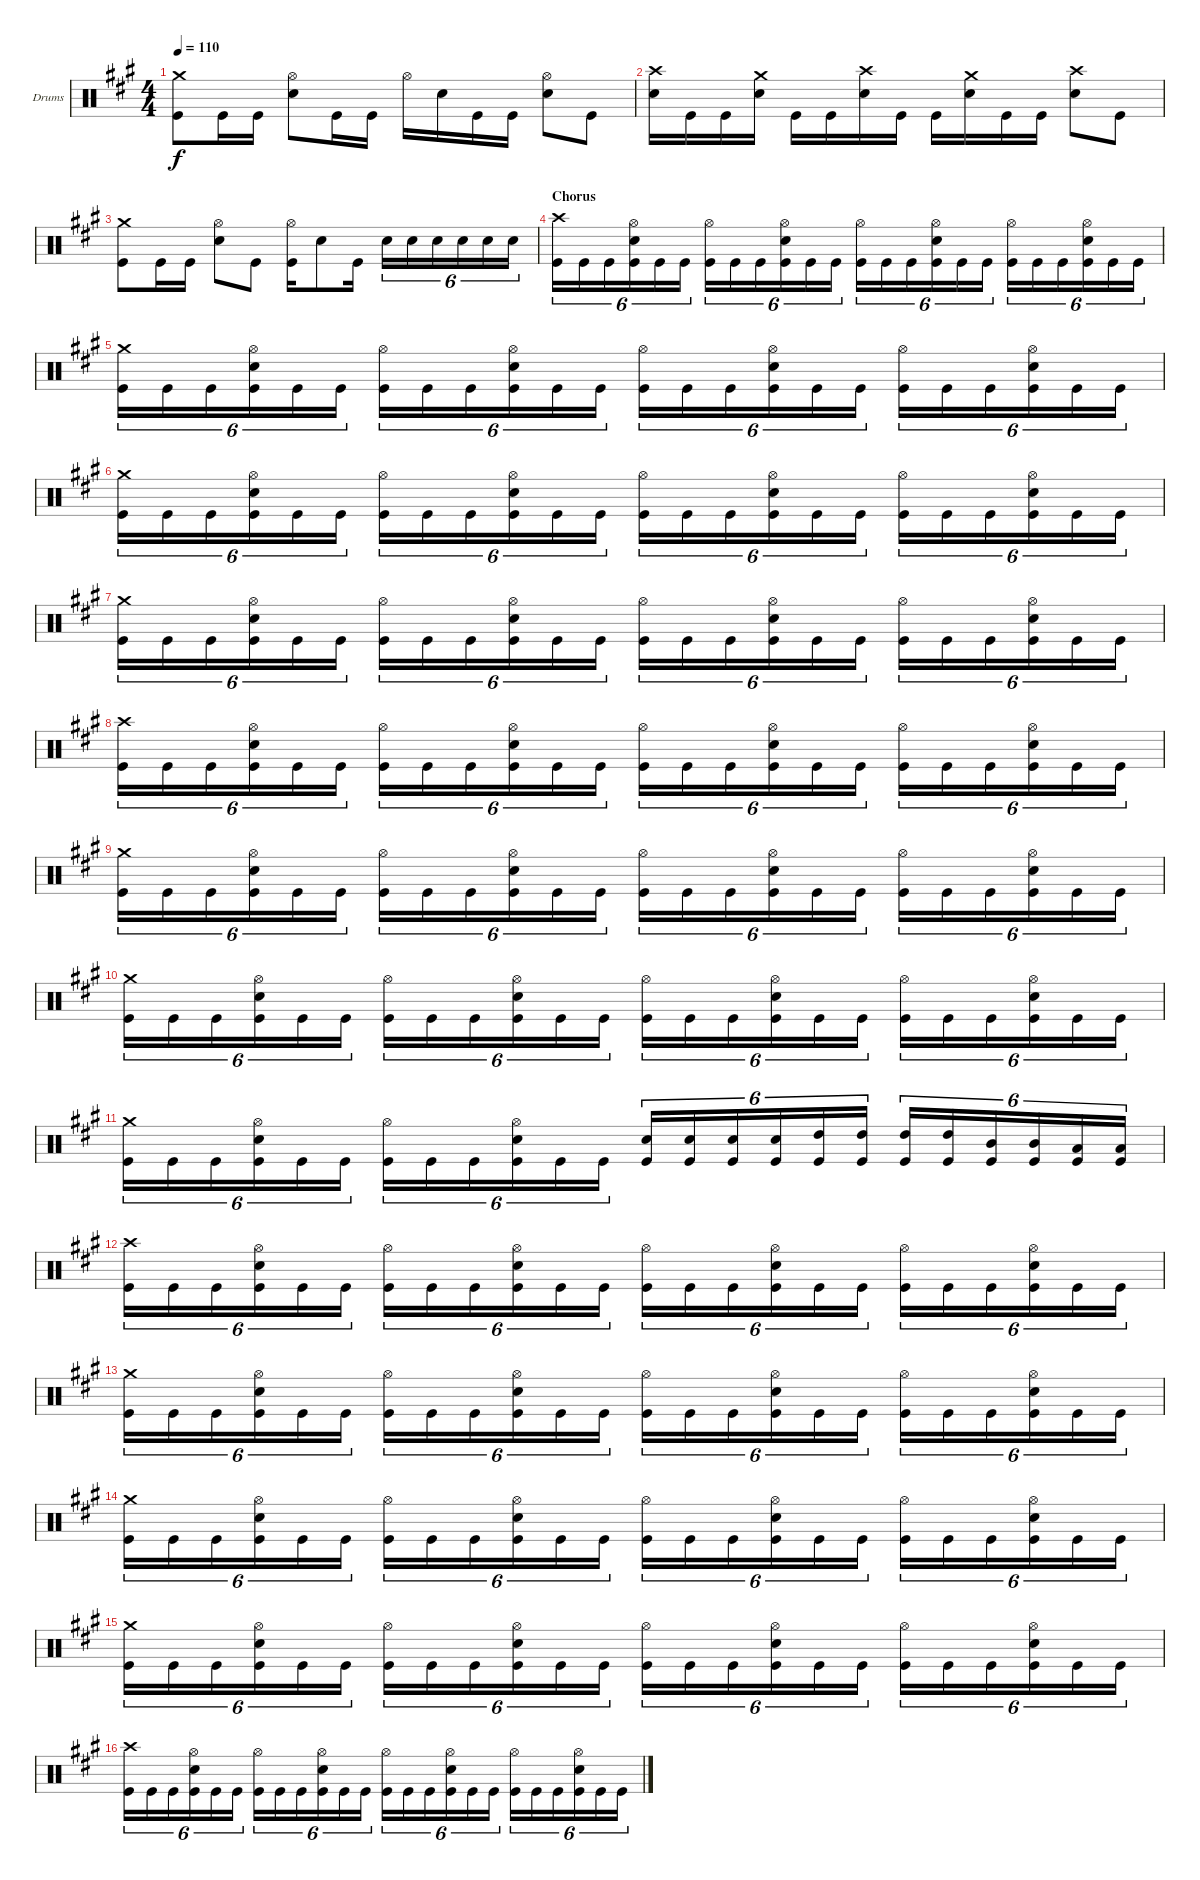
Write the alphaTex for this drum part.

\bracketExtendMode groupsimilarinstruments
\firstSystemTrackNameOrientation horizontal
\otherSystemsTrackNameOrientation horizontal
\track ("Drumkit" "Drums") {instrument percussion}
\staff {score}
\articulation defaults
\ts (4 4)
\tempo 110
\clef neutral
\ks a
("Kick (hit)" "Crash medium (hit)").8{dy f} "Kick (hit)".16 "Kick (hit)".16 ("Snare (hit) 2" "Hi-Hat (open)").8 "Kick (hit)".16 "Kick (hit)".16 "Hi-Hat (open)".16 "Snare (hit) 2".16 "Kick (hit)".16 "Kick (hit)".16 ("Snare (hit) 2" "Hi-Hat (open)").8 "Kick (hit)".8 |
("Crash high (hit)" "Snare (hit) 2").16 "Kick (hit)".16 "Kick (hit)".16 ("Snare (hit) 2" "Crash medium (hit)").16 "Kick (hit)".16 "Kick (hit)".16 ("Snare (hit) 2" "Crash high (hit)").16 "Kick (hit)".16 "Kick (hit)".16 ("Snare (hit) 2" "Crash medium (hit)").16 "Kick (hit)".16 "Kick (hit)".16 ("Snare (hit) 2" "Crash high (hit)").8 "Kick (hit)".8 |
("Kick (hit)" "Crash medium (hit)").8 "Kick (hit)".16 "Kick (hit)".16 ("Snare (hit) 2" "Hi-Hat (open)").8 "Kick (hit)".8 ("Kick (hit)" "Hi-Hat (open)").16 "Snare (hit) 2".8 "Kick (hit)".16 "Snare (hit) 2".16{tu (6 4)} "Snare (hit) 2".16{tu (6 4)} "Snare (hit) 2".16{tu (6 4)} "Snare (hit) 2".16{tu (6 4)} "Snare (hit) 2".16{tu (6 4)} "Snare (hit) 2".16{tu (6 4)} |
\section ("" "Chorus")
("Crash high (hit)" "Kick (hit)").16{tu (6 4)} "Kick (hit)".16{tu (6 4)} "Kick (hit)".16{tu (6 4)} ("Snare (hit) 2" "Kick (hit)" "Hi-Hat (open)").16{tu (6 4)} "Kick (hit)".16{tu (6 4)} "Kick (hit)".16{tu (6 4)} ("Kick (hit)" "Hi-Hat (open)").16{tu (6 4)} "Kick (hit)".16{tu (6 4)} "Kick (hit)".16{tu (6 4)} ("Snare (hit) 2" "Kick (hit)" "Hi-Hat (open)").16{tu (6 4)} "Kick (hit)".16{tu (6 4)} "Kick (hit)".16{tu (6 4)} ("Kick (hit)" "Hi-Hat (open)").16{tu (6 4)} "Kick (hit)".16{tu (6 4)} "Kick (hit)".16{tu (6 4)} ("Snare (hit) 2" "Kick (hit)" "Hi-Hat (open)").16{tu (6 4)} "Kick (hit)".16{tu (6 4)} "Kick (hit)".16{tu (6 4)} ("Kick (hit)" "Hi-Hat (open)").16{tu (6 4)} "Kick (hit)".16{tu (6 4)} "Kick (hit)".16{tu (6 4)} ("Snare (hit) 2" "Kick (hit)" "Hi-Hat (open)").16{tu (6 4)} "Kick (hit)".16{tu (6 4)} "Kick (hit)".16{tu (6 4)} |
("Kick (hit)" "Crash medium (hit)").16{tu (6 4)} "Kick (hit)".16{tu (6 4)} "Kick (hit)".16{tu (6 4)} ("Snare (hit) 2" "Kick (hit)" "Hi-Hat (open)").16{tu (6 4)} "Kick (hit)".16{tu (6 4)} "Kick (hit)".16{tu (6 4)} ("Kick (hit)" "Hi-Hat (open)").16{tu (6 4)} "Kick (hit)".16{tu (6 4)} "Kick (hit)".16{tu (6 4)} ("Snare (hit) 2" "Kick (hit)" "Hi-Hat (open)").16{tu (6 4)} "Kick (hit)".16{tu (6 4)} "Kick (hit)".16{tu (6 4)} ("Kick (hit)" "Hi-Hat (open)").16{tu (6 4)} "Kick (hit)".16{tu (6 4)} "Kick (hit)".16{tu (6 4)} ("Snare (hit) 2" "Kick (hit)" "Hi-Hat (open)").16{tu (6 4)} "Kick (hit)".16{tu (6 4)} "Kick (hit)".16{tu (6 4)} ("Kick (hit)" "Hi-Hat (open)").16{tu (6 4)} "Kick (hit)".16{tu (6 4)} "Kick (hit)".16{tu (6 4)} ("Snare (hit) 2" "Kick (hit)" "Hi-Hat (open)").16{tu (6 4)} "Kick (hit)".16{tu (6 4)} "Kick (hit)".16{tu (6 4)} |
("Kick (hit)" "Crash medium (hit)").16{tu (6 4)} "Kick (hit)".16{tu (6 4)} "Kick (hit)".16{tu (6 4)} ("Snare (hit) 2" "Kick (hit)" "Hi-Hat (open)").16{tu (6 4)} "Kick (hit)".16{tu (6 4)} "Kick (hit)".16{tu (6 4)} ("Kick (hit)" "Hi-Hat (open)").16{tu (6 4)} "Kick (hit)".16{tu (6 4)} "Kick (hit)".16{tu (6 4)} ("Snare (hit) 2" "Kick (hit)" "Hi-Hat (open)").16{tu (6 4)} "Kick (hit)".16{tu (6 4)} "Kick (hit)".16{tu (6 4)} ("Kick (hit)" "Hi-Hat (open)").16{tu (6 4)} "Kick (hit)".16{tu (6 4)} "Kick (hit)".16{tu (6 4)} ("Snare (hit) 2" "Kick (hit)" "Hi-Hat (open)").16{tu (6 4)} "Kick (hit)".16{tu (6 4)} "Kick (hit)".16{tu (6 4)} ("Kick (hit)" "Hi-Hat (open)").16{tu (6 4)} "Kick (hit)".16{tu (6 4)} "Kick (hit)".16{tu (6 4)} ("Snare (hit) 2" "Kick (hit)" "Hi-Hat (open)").16{tu (6 4)} "Kick (hit)".16{tu (6 4)} "Kick (hit)".16{tu (6 4)} |
("Kick (hit)" "Crash medium (hit)").16{tu (6 4)} "Kick (hit)".16{tu (6 4)} "Kick (hit)".16{tu (6 4)} ("Snare (hit) 2" "Kick (hit)" "Hi-Hat (open)").16{tu (6 4)} "Kick (hit)".16{tu (6 4)} "Kick (hit)".16{tu (6 4)} ("Kick (hit)" "Hi-Hat (open)").16{tu (6 4)} "Kick (hit)".16{tu (6 4)} "Kick (hit)".16{tu (6 4)} ("Snare (hit) 2" "Kick (hit)" "Hi-Hat (open)").16{tu (6 4)} "Kick (hit)".16{tu (6 4)} "Kick (hit)".16{tu (6 4)} ("Kick (hit)" "Hi-Hat (open)").16{tu (6 4)} "Kick (hit)".16{tu (6 4)} "Kick (hit)".16{tu (6 4)} ("Snare (hit) 2" "Kick (hit)" "Hi-Hat (open)").16{tu (6 4)} "Kick (hit)".16{tu (6 4)} "Kick (hit)".16{tu (6 4)} ("Kick (hit)" "Hi-Hat (open)").16{tu (6 4)} "Kick (hit)".16{tu (6 4)} "Kick (hit)".16{tu (6 4)} ("Snare (hit) 2" "Kick (hit)" "Hi-Hat (open)").16{tu (6 4)} "Kick (hit)".16{tu (6 4)} "Kick (hit)".16{tu (6 4)} |
("Crash high (hit)" "Kick (hit)").16{tu (6 4)} "Kick (hit)".16{tu (6 4)} "Kick (hit)".16{tu (6 4)} ("Snare (hit) 2" "Kick (hit)" "Hi-Hat (open)").16{tu (6 4)} "Kick (hit)".16{tu (6 4)} "Kick (hit)".16{tu (6 4)} ("Kick (hit)" "Hi-Hat (open)").16{tu (6 4)} "Kick (hit)".16{tu (6 4)} "Kick (hit)".16{tu (6 4)} ("Snare (hit) 2" "Kick (hit)" "Hi-Hat (open)").16{tu (6 4)} "Kick (hit)".16{tu (6 4)} "Kick (hit)".16{tu (6 4)} ("Kick (hit)" "Hi-Hat (open)").16{tu (6 4)} "Kick (hit)".16{tu (6 4)} "Kick (hit)".16{tu (6 4)} ("Snare (hit) 2" "Kick (hit)" "Hi-Hat (open)").16{tu (6 4)} "Kick (hit)".16{tu (6 4)} "Kick (hit)".16{tu (6 4)} ("Kick (hit)" "Hi-Hat (open)").16{tu (6 4)} "Kick (hit)".16{tu (6 4)} "Kick (hit)".16{tu (6 4)} ("Snare (hit) 2" "Kick (hit)" "Hi-Hat (open)").16{tu (6 4)} "Kick (hit)".16{tu (6 4)} "Kick (hit)".16{tu (6 4)} |
("Kick (hit)" "Crash medium (hit)").16{tu (6 4)} "Kick (hit)".16{tu (6 4)} "Kick (hit)".16{tu (6 4)} ("Snare (hit) 2" "Kick (hit)" "Hi-Hat (open)").16{tu (6 4)} "Kick (hit)".16{tu (6 4)} "Kick (hit)".16{tu (6 4)} ("Kick (hit)" "Hi-Hat (open)").16{tu (6 4)} "Kick (hit)".16{tu (6 4)} "Kick (hit)".16{tu (6 4)} ("Snare (hit) 2" "Kick (hit)" "Hi-Hat (open)").16{tu (6 4)} "Kick (hit)".16{tu (6 4)} "Kick (hit)".16{tu (6 4)} ("Kick (hit)" "Hi-Hat (open)").16{tu (6 4)} "Kick (hit)".16{tu (6 4)} "Kick (hit)".16{tu (6 4)} ("Snare (hit) 2" "Kick (hit)" "Hi-Hat (open)").16{tu (6 4)} "Kick (hit)".16{tu (6 4)} "Kick (hit)".16{tu (6 4)} ("Kick (hit)" "Hi-Hat (open)").16{tu (6 4)} "Kick (hit)".16{tu (6 4)} "Kick (hit)".16{tu (6 4)} ("Snare (hit) 2" "Kick (hit)" "Hi-Hat (open)").16{tu (6 4)} "Kick (hit)".16{tu (6 4)} "Kick (hit)".16{tu (6 4)} |
("Kick (hit)" "Crash medium (hit)").16{tu (6 4)} "Kick (hit)".16{tu (6 4)} "Kick (hit)".16{tu (6 4)} ("Snare (hit) 2" "Kick (hit)" "Hi-Hat (open)").16{tu (6 4)} "Kick (hit)".16{tu (6 4)} "Kick (hit)".16{tu (6 4)} ("Kick (hit)" "Hi-Hat (open)").16{tu (6 4)} "Kick (hit)".16{tu (6 4)} "Kick (hit)".16{tu (6 4)} ("Snare (hit) 2" "Kick (hit)" "Hi-Hat (open)").16{tu (6 4)} "Kick (hit)".16{tu (6 4)} "Kick (hit)".16{tu (6 4)} ("Kick (hit)" "Hi-Hat (open)").16{tu (6 4)} "Kick (hit)".16{tu (6 4)} "Kick (hit)".16{tu (6 4)} ("Snare (hit) 2" "Kick (hit)" "Hi-Hat (open)").16{tu (6 4)} "Kick (hit)".16{tu (6 4)} "Kick (hit)".16{tu (6 4)} ("Kick (hit)" "Hi-Hat (open)").16{tu (6 4)} "Kick (hit)".16{tu (6 4)} "Kick (hit)".16{tu (6 4)} ("Snare (hit) 2" "Kick (hit)" "Hi-Hat (open)").16{tu (6 4)} "Kick (hit)".16{tu (6 4)} "Kick (hit)".16{tu (6 4)} |
("Kick (hit)" "Crash medium (hit)").16{tu (6 4)} "Kick (hit)".16{tu (6 4)} "Kick (hit)".16{tu (6 4)} ("Snare (hit) 2" "Kick (hit)" "Hi-Hat (open)").16{tu (6 4)} "Kick (hit)".16{tu (6 4)} "Kick (hit)".16{tu (6 4)} ("Kick (hit)" "Hi-Hat (open)").16{tu (6 4)} "Kick (hit)".16{tu (6 4)} "Kick (hit)".16{tu (6 4)} ("Snare (hit) 2" "Kick (hit)" "Hi-Hat (open)").16{tu (6 4)} "Kick (hit)".16{tu (6 4)} "Kick (hit)".16{tu (6 4)} ("Kick (hit)" "Snare (hit) 2").16{tu (6 4)} ("Kick (hit)" "Snare (hit) 2").16{tu (6 4)} ("Kick (hit)" "Snare (hit) 2").16{tu (6 4)} ("Kick (hit)" "Snare (hit) 2").16{tu (6 4)} ("Kick (hit)" "High Tom (hit)").16{tu (6 4)} ("Kick (hit)" "High Tom (hit)").16{tu (6 4)} ("Kick (hit)" "High Tom (hit)").16{tu (6 4)} ("Kick (hit)" "High Tom (hit)").16{tu (6 4)} ("Kick (hit)" "Mid Tom (hit)").16{tu (6 4)} ("Kick (hit)" "Mid Tom (hit)").16{tu (6 4)} ("Kick (hit)" "Low Tom (hit)").16{tu (6 4)} ("Kick (hit)" "Low Tom (hit)").16{tu (6 4)} |
("Crash high (hit)" "Kick (hit)").16{tu (6 4)} "Kick (hit)".16{tu (6 4)} "Kick (hit)".16{tu (6 4)} ("Snare (hit) 2" "Kick (hit)" "Hi-Hat (open)").16{tu (6 4)} "Kick (hit)".16{tu (6 4)} "Kick (hit)".16{tu (6 4)} ("Kick (hit)" "Hi-Hat (open)").16{tu (6 4)} "Kick (hit)".16{tu (6 4)} "Kick (hit)".16{tu (6 4)} ("Snare (hit) 2" "Kick (hit)" "Hi-Hat (open)").16{tu (6 4)} "Kick (hit)".16{tu (6 4)} "Kick (hit)".16{tu (6 4)} ("Kick (hit)" "Hi-Hat (open)").16{tu (6 4)} "Kick (hit)".16{tu (6 4)} "Kick (hit)".16{tu (6 4)} ("Snare (hit) 2" "Kick (hit)" "Hi-Hat (open)").16{tu (6 4)} "Kick (hit)".16{tu (6 4)} "Kick (hit)".16{tu (6 4)} ("Kick (hit)" "Hi-Hat (open)").16{tu (6 4)} "Kick (hit)".16{tu (6 4)} "Kick (hit)".16{tu (6 4)} ("Snare (hit) 2" "Kick (hit)" "Hi-Hat (open)").16{tu (6 4)} "Kick (hit)".16{tu (6 4)} "Kick (hit)".16{tu (6 4)} |
("Kick (hit)" "Crash medium (hit)").16{tu (6 4)} "Kick (hit)".16{tu (6 4)} "Kick (hit)".16{tu (6 4)} ("Snare (hit) 2" "Kick (hit)" "Hi-Hat (open)").16{tu (6 4)} "Kick (hit)".16{tu (6 4)} "Kick (hit)".16{tu (6 4)} ("Kick (hit)" "Hi-Hat (open)").16{tu (6 4)} "Kick (hit)".16{tu (6 4)} "Kick (hit)".16{tu (6 4)} ("Snare (hit) 2" "Kick (hit)" "Hi-Hat (open)").16{tu (6 4)} "Kick (hit)".16{tu (6 4)} "Kick (hit)".16{tu (6 4)} ("Kick (hit)" "Hi-Hat (open)").16{tu (6 4)} "Kick (hit)".16{tu (6 4)} "Kick (hit)".16{tu (6 4)} ("Snare (hit) 2" "Kick (hit)" "Hi-Hat (open)").16{tu (6 4)} "Kick (hit)".16{tu (6 4)} "Kick (hit)".16{tu (6 4)} ("Kick (hit)" "Hi-Hat (open)").16{tu (6 4)} "Kick (hit)".16{tu (6 4)} "Kick (hit)".16{tu (6 4)} ("Snare (hit) 2" "Kick (hit)" "Hi-Hat (open)").16{tu (6 4)} "Kick (hit)".16{tu (6 4)} "Kick (hit)".16{tu (6 4)} |
("Kick (hit)" "Crash medium (hit)").16{tu (6 4)} "Kick (hit)".16{tu (6 4)} "Kick (hit)".16{tu (6 4)} ("Snare (hit) 2" "Kick (hit)" "Hi-Hat (open)").16{tu (6 4)} "Kick (hit)".16{tu (6 4)} "Kick (hit)".16{tu (6 4)} ("Kick (hit)" "Hi-Hat (open)").16{tu (6 4)} "Kick (hit)".16{tu (6 4)} "Kick (hit)".16{tu (6 4)} ("Snare (hit) 2" "Kick (hit)" "Hi-Hat (open)").16{tu (6 4)} "Kick (hit)".16{tu (6 4)} "Kick (hit)".16{tu (6 4)} ("Kick (hit)" "Hi-Hat (open)").16{tu (6 4)} "Kick (hit)".16{tu (6 4)} "Kick (hit)".16{tu (6 4)} ("Snare (hit) 2" "Kick (hit)" "Hi-Hat (open)").16{tu (6 4)} "Kick (hit)".16{tu (6 4)} "Kick (hit)".16{tu (6 4)} ("Kick (hit)" "Hi-Hat (open)").16{tu (6 4)} "Kick (hit)".16{tu (6 4)} "Kick (hit)".16{tu (6 4)} ("Snare (hit) 2" "Kick (hit)" "Hi-Hat (open)").16{tu (6 4)} "Kick (hit)".16{tu (6 4)} "Kick (hit)".16{tu (6 4)} |
("Kick (hit)" "Crash medium (hit)").16{tu (6 4)} "Kick (hit)".16{tu (6 4)} "Kick (hit)".16{tu (6 4)} ("Snare (hit) 2" "Kick (hit)" "Hi-Hat (open)").16{tu (6 4)} "Kick (hit)".16{tu (6 4)} "Kick (hit)".16{tu (6 4)} ("Kick (hit)" "Hi-Hat (open)").16{tu (6 4)} "Kick (hit)".16{tu (6 4)} "Kick (hit)".16{tu (6 4)} ("Snare (hit) 2" "Kick (hit)" "Hi-Hat (open)").16{tu (6 4)} "Kick (hit)".16{tu (6 4)} "Kick (hit)".16{tu (6 4)} ("Kick (hit)" "Hi-Hat (open)").16{tu (6 4)} "Kick (hit)".16{tu (6 4)} "Kick (hit)".16{tu (6 4)} ("Snare (hit) 2" "Kick (hit)" "Hi-Hat (open)").16{tu (6 4)} "Kick (hit)".16{tu (6 4)} "Kick (hit)".16{tu (6 4)} ("Kick (hit)" "Hi-Hat (open)").16{tu (6 4)} "Kick (hit)".16{tu (6 4)} "Kick (hit)".16{tu (6 4)} ("Snare (hit) 2" "Kick (hit)" "Hi-Hat (open)").16{tu (6 4)} "Kick (hit)".16{tu (6 4)} "Kick (hit)".16{tu (6 4)} |
("Crash high (hit)" "Kick (hit)").16{tu (6 4)} "Kick (hit)".16{tu (6 4)} "Kick (hit)".16{tu (6 4)} ("Snare (hit) 2" "Kick (hit)" "Hi-Hat (open)").16{tu (6 4)} "Kick (hit)".16{tu (6 4)} "Kick (hit)".16{tu (6 4)} ("Kick (hit)" "Hi-Hat (open)").16{tu (6 4)} "Kick (hit)".16{tu (6 4)} "Kick (hit)".16{tu (6 4)} ("Snare (hit) 2" "Kick (hit)" "Hi-Hat (open)").16{tu (6 4)} "Kick (hit)".16{tu (6 4)} "Kick (hit)".16{tu (6 4)} ("Kick (hit)" "Hi-Hat (open)").16{tu (6 4)} "Kick (hit)".16{tu (6 4)} "Kick (hit)".16{tu (6 4)} ("Snare (hit) 2" "Kick (hit)" "Hi-Hat (open)").16{tu (6 4)} "Kick (hit)".16{tu (6 4)} "Kick (hit)".16{tu (6 4)} ("Kick (hit)" "Hi-Hat (open)").16{tu (6 4)} "Kick (hit)".16{tu (6 4)} "Kick (hit)".16{tu (6 4)} ("Snare (hit) 2" "Kick (hit)" "Hi-Hat (open)").16{tu (6 4)} "Kick (hit)".16{tu (6 4)} "Kick (hit)".16{tu (6 4)}
